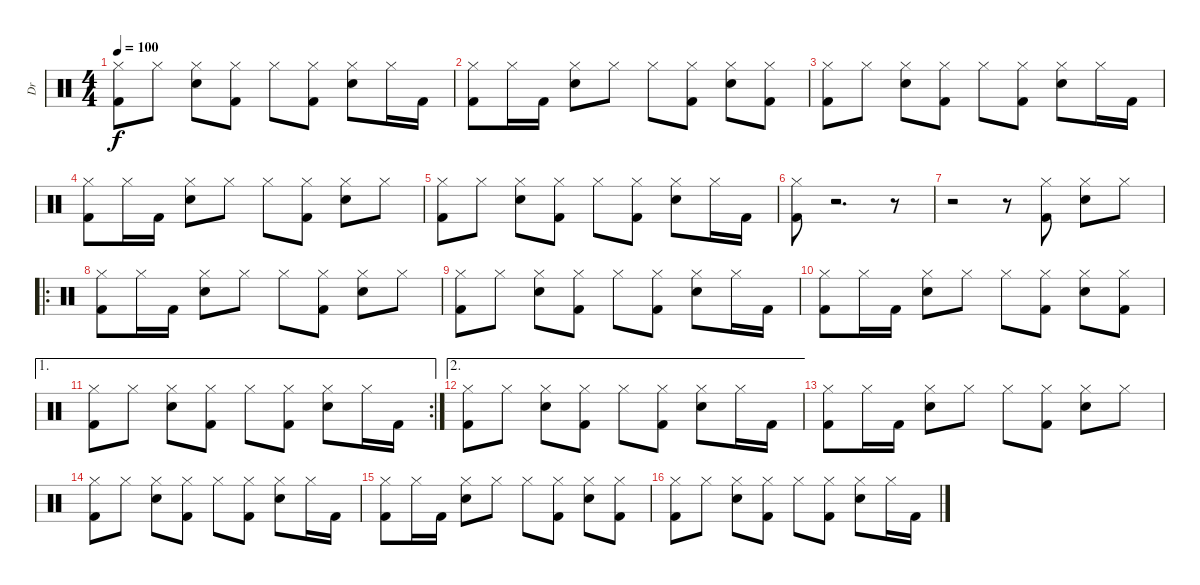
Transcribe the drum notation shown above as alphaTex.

\track ("Dr" "Dr") {instrument percussion}
\staff {score}
\articulation defaults
\ts (4 4)
\tempo 100
\clef neutral
\ks c
("Hi-Hat (closed)" "Kick (hit) 2").8{dy f} "Hi-Hat (closed)".8 ("Hi-Hat (closed)" "Electric Snare (hit)").8 ("Hi-Hat (closed)" "Kick (hit) 2").8 "Hi-Hat (closed)".8 ("Hi-Hat (closed)" "Kick (hit) 2").8 ("Hi-Hat (closed)" "Electric Snare (hit)").8 "Hi-Hat (closed)".16 "Kick (hit) 2".16 |
("Hi-Hat (closed)" "Kick (hit) 2").8 "Hi-Hat (closed)".16 "Kick (hit) 2".16 ("Hi-Hat (closed)" "Electric Snare (hit)").8 "Hi-Hat (closed)".8 "Hi-Hat (closed)".8 ("Hi-Hat (closed)" "Kick (hit) 2").8 ("Hi-Hat (closed)" "Electric Snare (hit)").8 ("Hi-Hat (closed)" "Kick (hit) 2").8 |
("Hi-Hat (closed)" "Kick (hit) 2").8 "Hi-Hat (closed)".8 ("Hi-Hat (closed)" "Electric Snare (hit)").8 ("Hi-Hat (closed)" "Kick (hit) 2").8 "Hi-Hat (closed)".8 ("Hi-Hat (closed)" "Kick (hit) 2").8 ("Hi-Hat (closed)" "Electric Snare (hit)").8 "Hi-Hat (closed)".16 "Kick (hit) 2".16 |
("Hi-Hat (closed)" "Kick (hit) 2").8 "Hi-Hat (closed)".16 "Kick (hit) 2".16 ("Hi-Hat (closed)" "Electric Snare (hit)").8 "Hi-Hat (closed)".8 "Hi-Hat (closed)".8 ("Hi-Hat (closed)" "Kick (hit) 2").8 ("Hi-Hat (closed)" "Electric Snare (hit)").8 "Hi-Hat (closed)".8 |
("Hi-Hat (closed)" "Kick (hit) 2").8 "Hi-Hat (closed)".8 ("Hi-Hat (closed)" "Electric Snare (hit)").8 ("Hi-Hat (closed)" "Kick (hit) 2").8 "Hi-Hat (closed)".8 ("Hi-Hat (closed)" "Kick (hit) 2").8 ("Hi-Hat (closed)" "Electric Snare (hit)").8 "Hi-Hat (closed)".16 "Kick (hit) 2".16 |
("Hi-Hat (closed)" "Kick (hit) 2").8 r.2{d} r.8 |
r.2 r.8 ("Hi-Hat (closed)" "Kick (hit) 2").8 ("Hi-Hat (closed)" "Electric Snare (hit)").8 "Hi-Hat (closed)".8 |
\ro
("Hi-Hat (closed)" "Kick (hit) 2").8 "Hi-Hat (closed)".16 "Kick (hit) 2".16 ("Hi-Hat (closed)" "Electric Snare (hit)").8 "Hi-Hat (closed)".8 "Hi-Hat (closed)".8 ("Hi-Hat (closed)" "Kick (hit) 2").8 ("Hi-Hat (closed)" "Electric Snare (hit)").8 "Hi-Hat (closed)".8 |
("Hi-Hat (closed)" "Kick (hit) 2").8 "Hi-Hat (closed)".8 ("Hi-Hat (closed)" "Electric Snare (hit)").8 ("Hi-Hat (closed)" "Kick (hit) 2").8 "Hi-Hat (closed)".8 ("Hi-Hat (closed)" "Kick (hit) 2").8 ("Hi-Hat (closed)" "Electric Snare (hit)").8 "Hi-Hat (closed)".16 "Kick (hit) 2".16 |
("Hi-Hat (closed)" "Kick (hit) 2").8 "Hi-Hat (closed)".16 "Kick (hit) 2".16 ("Hi-Hat (closed)" "Electric Snare (hit)").8 "Hi-Hat (closed)".8 "Hi-Hat (closed)".8 ("Hi-Hat (closed)" "Kick (hit) 2").8 ("Hi-Hat (closed)" "Electric Snare (hit)").8 ("Hi-Hat (closed)" "Kick (hit) 2").8 |
\ae 1
\rc 2
("Hi-Hat (closed)" "Kick (hit) 2").8 "Hi-Hat (closed)".8 ("Hi-Hat (closed)" "Electric Snare (hit)").8 ("Hi-Hat (closed)" "Kick (hit) 2").8 "Hi-Hat (closed)".8 ("Hi-Hat (closed)" "Kick (hit) 2").8 ("Hi-Hat (closed)" "Electric Snare (hit)").8 "Hi-Hat (closed)".16 "Kick (hit) 2".16 |
\ae 2
("Hi-Hat (closed)" "Kick (hit) 2").8 "Hi-Hat (closed)".8 ("Hi-Hat (closed)" "Electric Snare (hit)").8 ("Hi-Hat (closed)" "Kick (hit) 2").8 "Hi-Hat (closed)".8 ("Hi-Hat (closed)" "Kick (hit) 2").8 ("Hi-Hat (closed)" "Electric Snare (hit)").8 "Hi-Hat (closed)".16 "Kick (hit) 2".16 |
("Hi-Hat (closed)" "Kick (hit) 2").8 "Hi-Hat (closed)".16 "Kick (hit) 2".16 ("Hi-Hat (closed)" "Electric Snare (hit)").8 "Hi-Hat (closed)".8 "Hi-Hat (closed)".8 ("Hi-Hat (closed)" "Kick (hit) 2").8 ("Hi-Hat (closed)" "Electric Snare (hit)").8 "Hi-Hat (closed)".8 |
("Hi-Hat (closed)" "Kick (hit) 2").8 "Hi-Hat (closed)".8 ("Hi-Hat (closed)" "Electric Snare (hit)").8 ("Hi-Hat (closed)" "Kick (hit) 2").8 "Hi-Hat (closed)".8 ("Hi-Hat (closed)" "Kick (hit) 2").8 ("Hi-Hat (closed)" "Electric Snare (hit)").8 "Hi-Hat (closed)".16 "Kick (hit) 2".16 |
("Hi-Hat (closed)" "Kick (hit) 2").8 "Hi-Hat (closed)".16 "Kick (hit) 2".16 ("Hi-Hat (closed)" "Electric Snare (hit)").8 "Hi-Hat (closed)".8 "Hi-Hat (closed)".8 ("Hi-Hat (closed)" "Kick (hit) 2").8 ("Hi-Hat (closed)" "Electric Snare (hit)").8 ("Hi-Hat (closed)" "Kick (hit) 2").8 |
("Hi-Hat (closed)" "Kick (hit) 2").8 "Hi-Hat (closed)".8 ("Hi-Hat (closed)" "Electric Snare (hit)").8 ("Hi-Hat (closed)" "Kick (hit) 2").8 "Hi-Hat (closed)".8 ("Hi-Hat (closed)" "Kick (hit) 2").8 ("Hi-Hat (closed)" "Electric Snare (hit)").8 "Hi-Hat (closed)".16 "Kick (hit) 2".16
